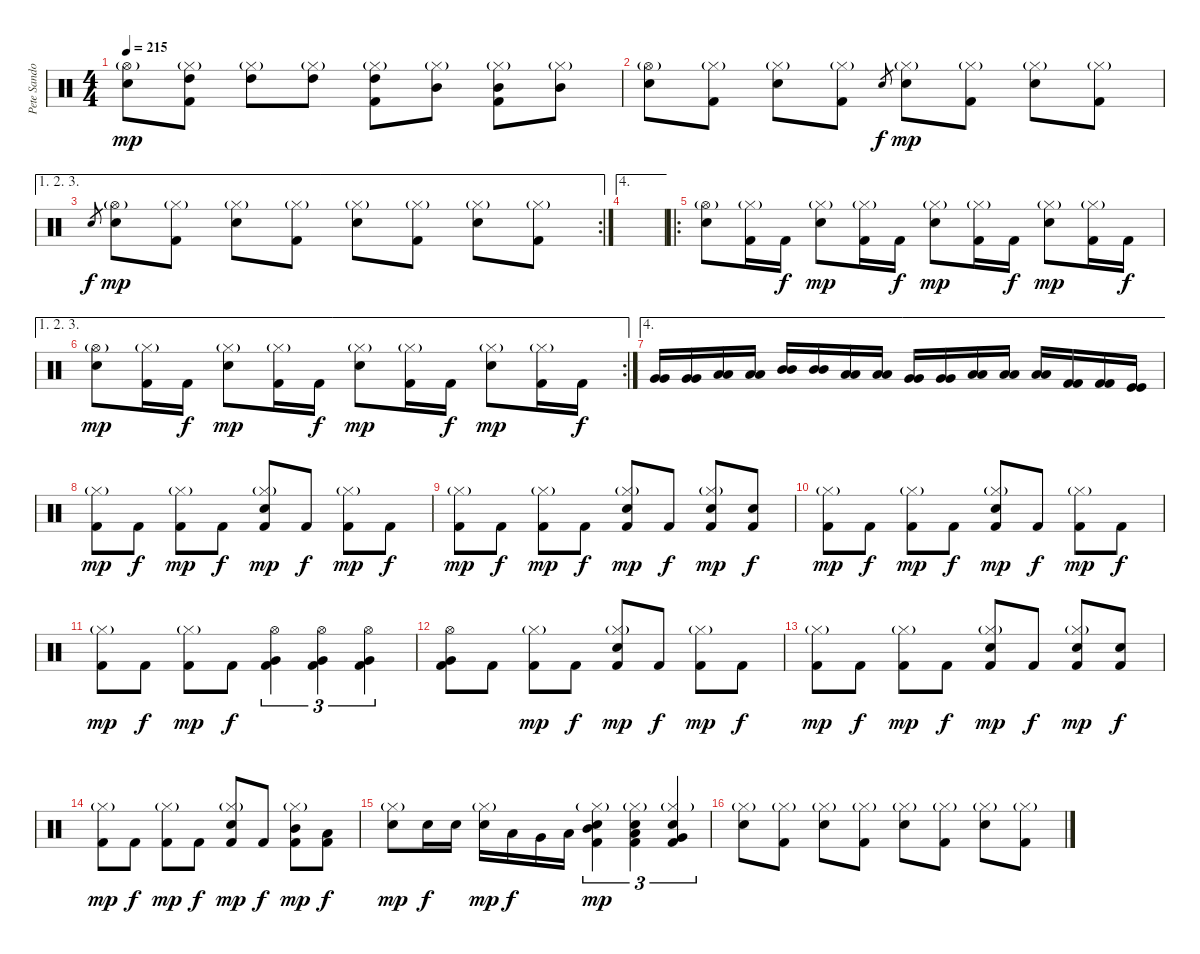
\track ("Pete Sandoval" "Pete Sando") {instrument percussion}
\staff {score}
\articulation defaults
\ts (4 4)
\tempo 215
\clef neutral
\ks c
("Hi-Hat (open)"{g} "Snare (hit) 2").8{dy mp} ("Hi-Hat (closed)"{g} "High Tom (hit)" "Kick (hit) 2").8 ("Hi-Hat (closed)"{g} "High Tom (hit)").8 ("Hi-Hat (closed)"{g} "High Tom (hit)").8 ("Hi-Hat (closed)"{g} "High Tom (hit)" "Kick (hit) 2").8 ("Hi-Hat (closed)"{g} "Mid Tom (hit)").8 ("Hi-Hat (closed)"{g} "Mid Tom (hit)" "Kick (hit) 2").8 ("Hi-Hat (closed)"{g} "Mid Tom (hit)").8 |
("Hi-Hat (open)"{g} "Snare (hit) 2").8 ("Hi-Hat (closed)"{g} "Kick (hit) 2").8 ("Hi-Hat (closed)"{g} "Snare (hit) 2").8 ("Hi-Hat (closed)"{g} "Kick (hit) 2").8 "Snare (hit) 2".8{gr dy f} ("Hi-Hat (closed)"{g} "Snare (hit) 2").8{dy mp} ("Hi-Hat (closed)"{g} "Kick (hit) 2").8 ("Hi-Hat (closed)"{g} "Snare (hit) 2").8 ("Hi-Hat (closed)"{g} "Kick (hit) 2").8 |
\ae (1 2 3)
\rc 2 "Snare (hit) 2".8{gr dy f}
("Hi-Hat (open)"{g} "Snare (hit) 2").8{dy mp} ("Hi-Hat (closed)"{g} "Kick (hit) 2").8 ("Hi-Hat (closed)"{g} "Snare (hit) 2").8 ("Hi-Hat (closed)"{g} "Kick (hit) 2").8 ("Hi-Hat (closed)"{g} "Snare (hit) 2").8 ("Hi-Hat (closed)"{g} "Kick (hit) 2").8 ("Hi-Hat (closed)"{g} "Snare (hit) 2").8 ("Hi-Hat (closed)"{g} "Kick (hit) 2").8 |
\ae 4
|
\ro
("Hi-Hat (open)"{g} "Snare (hit) 2").8 ("Hi-Hat (closed)"{g} "Kick (hit) 2").16 "Kick (hit) 2".16{dy f} ("Hi-Hat (closed)"{g} "Snare (hit) 2").8{dy mp} ("Hi-Hat (closed)"{g} "Kick (hit) 2").16 "Kick (hit) 2".16{dy f} ("Hi-Hat (closed)"{g} "Snare (hit) 2").8{dy mp} ("Hi-Hat (closed)"{g} "Kick (hit) 2").16 "Kick (hit) 2".16{dy f} ("Hi-Hat (closed)"{g} "Snare (hit) 2").8{dy mp} ("Hi-Hat (closed)"{g} "Kick (hit) 2").16 "Kick (hit) 2".16{dy f} |
\ae (1 2 3)
\rc 2
("Hi-Hat (open)"{g} "Snare (hit) 2").8{dy mp} ("Hi-Hat (closed)"{g} "Kick (hit) 2").16 "Kick (hit) 2".16{dy f} ("Hi-Hat (closed)"{g} "Snare (hit) 2").8{dy mp} ("Hi-Hat (closed)"{g} "Kick (hit) 2").16 "Kick (hit) 2".16{dy f} ("Hi-Hat (closed)"{g} "Snare (hit) 2").8{dy mp} ("Hi-Hat (closed)"{g} "Kick (hit) 2").16 "Kick (hit) 2".16{dy f} ("Hi-Hat (closed)"{g} "Snare (hit) 2").8{dy mp} ("Hi-Hat (closed)"{g} "Kick (hit) 2").16 "Kick (hit) 2".16{dy f} |
\ae 4
("Very Low Tom (hit)" "Very Low Tom (hit)").16 ("Very Low Tom (hit)" "Very Low Tom (hit)").16 ("Low Tom (hit)" "Low Tom (hit)").16 ("Low Tom (hit)" "Low Tom (hit)").16 ("Mid Tom (hit)" "Mid Tom (hit)").16 ("Mid Tom (hit)" "Mid Tom (hit)").16 ("Low Tom (hit)" "Low Tom (hit)").16 ("Low Tom (hit)" "Low Tom (hit)").16 ("Very Low Tom (hit)" "Very Low Tom (hit)").16 ("Very Low Tom (hit)" "Very Low Tom (hit)").16 ("Low Floor Tom (hit)" "Low Floor Tom (hit)").16 ("Low Floor Tom (hit)" "Low Floor Tom (hit)").16 ("Low Floor Tom (hit)" "Low Floor Tom (hit)").16 ("Kick (hit) 2" "Kick (hit) 2").16 ("Kick (hit) 2" "Kick (hit) 2").16 ("Kick (hit)" "Kick (hit)").16 |
("Hi-Hat (closed)"{g} "Kick (hit) 2").8{dy mp} "Kick (hit) 2".8{dy f} ("Hi-Hat (closed)"{g} "Kick (hit) 2").8{dy mp} "Kick (hit) 2".8{dy f} ("Hi-Hat (closed)"{g} "Snare (hit) 2" "Kick (hit) 2").8{dy mp} "Kick (hit) 2".8{dy f} ("Hi-Hat (closed)"{g} "Kick (hit) 2").8{dy mp} "Kick (hit) 2".8{dy f} |
("Hi-Hat (closed)"{g} "Kick (hit) 2").8{dy mp} "Kick (hit) 2".8{dy f} ("Hi-Hat (closed)"{g} "Kick (hit) 2").8{dy mp} "Kick (hit) 2".8{dy f} ("Hi-Hat (closed)"{g} "Snare (hit) 2" "Kick (hit) 2").8{dy mp} "Kick (hit) 2".8{dy f} ("Hi-Hat (closed)"{g} "Snare (hit) 2" "Kick (hit) 2").8{dy mp} ("Snare (hit) 2" "Kick (hit) 2").8{dy f} |
("Hi-Hat (closed)"{g} "Kick (hit) 2").8{dy mp} "Kick (hit) 2".8{dy f} ("Hi-Hat (closed)"{g} "Kick (hit) 2").8{dy mp} "Kick (hit) 2".8{dy f} ("Hi-Hat (closed)"{g} "Snare (hit) 2" "Kick (hit) 2").8{dy mp} "Kick (hit) 2".8{dy f} ("Hi-Hat (closed)"{g} "Kick (hit) 2").8{dy mp} "Kick (hit) 2".8{dy f} |
("Hi-Hat (closed)"{g} "Kick (hit) 2").8{dy mp} "Kick (hit) 2".8{dy f} ("Hi-Hat (closed)"{g} "Kick (hit) 2").8{dy mp} "Kick (hit) 2".8{dy f} ("Hi-Hat (open)" "Very Low Tom (hit)" "Kick (hit) 2").4{tu (3 2)} ("Hi-Hat (open)" "Very Low Tom (hit)" "Kick (hit) 2").4{tu (3 2)} ("Hi-Hat (open)" "Very Low Tom (hit)" "Kick (hit) 2").4{tu (3 2)} |
("Hi-Hat (open)" "Very Low Tom (hit)" "Kick (hit) 2").8 "Kick (hit) 2".8 ("Hi-Hat (closed)"{g} "Kick (hit) 2").8{dy mp} "Kick (hit) 2".8{dy f} ("Hi-Hat (closed)"{g} "Snare (hit) 2" "Kick (hit) 2").8{dy mp} "Kick (hit) 2".8{dy f} ("Hi-Hat (closed)"{g} "Kick (hit) 2").8{dy mp} "Kick (hit) 2".8{dy f} |
("Hi-Hat (closed)"{g} "Kick (hit) 2").8{dy mp} "Kick (hit) 2".8{dy f} ("Hi-Hat (closed)"{g} "Kick (hit) 2").8{dy mp} "Kick (hit) 2".8{dy f} ("Hi-Hat (closed)"{g} "Snare (hit) 2" "Kick (hit) 2").8{dy mp} "Kick (hit) 2".8{dy f} ("Hi-Hat (closed)"{g} "Snare (hit) 2" "Kick (hit) 2").8{dy mp} ("Snare (hit) 2" "Kick (hit) 2").8{dy f} |
("Hi-Hat (closed)"{g} "Kick (hit) 2").8{dy mp} "Kick (hit) 2".8{dy f} ("Hi-Hat (closed)"{g} "Kick (hit) 2").8{dy mp} "Kick (hit) 2".8{dy f} ("Hi-Hat (closed)"{g} "Snare (hit) 2" "Kick (hit) 2").8{dy mp} "Kick (hit) 2".8{dy f} ("Hi-Hat (closed)"{g} "Mid Tom (hit)" "Kick (hit) 2").8{dy mp} ("Low Tom (hit)" "Kick (hit) 2").8{dy f} |
("Hi-Hat (closed)"{g} "Snare (hit) 2").8{dy mp} "Snare (hit) 2".16{dy f} "Snare (hit) 2".16 ("Hi-Hat (closed)"{g} "Snare (hit) 2").16{dy mp} "Low Tom (hit)".16{dy f} "Very Low Tom (hit)".16 "Low Floor Tom (hit)".16 ("Hi-Hat (closed)"{g} "Snare (hit) 2" "Mid Tom (hit)" "Kick (hit) 2").4{tu (3 2) dy mp} ("Hi-Hat (closed)"{g} "Snare (hit) 2" "Low Tom (hit)" "Kick (hit) 2").4{tu (3 2)} ("Hi-Hat (closed)"{g} "Snare (hit) 2" "Very Low Tom (hit)" "Kick (hit) 2").4{tu (3 2)} |
("Hi-Hat (closed)"{g} "Snare (hit) 2").8 ("Hi-Hat (closed)"{g} "Kick (hit) 2").8 ("Hi-Hat (closed)"{g} "Snare (hit) 2").8 ("Hi-Hat (closed)"{g} "Kick (hit) 2").8 ("Hi-Hat (closed)"{g} "Snare (hit) 2").8 ("Hi-Hat (closed)"{g} "Kick (hit) 2").8 ("Hi-Hat (closed)"{g} "Snare (hit) 2").8 ("Hi-Hat (closed)"{g} "Kick (hit) 2").8
